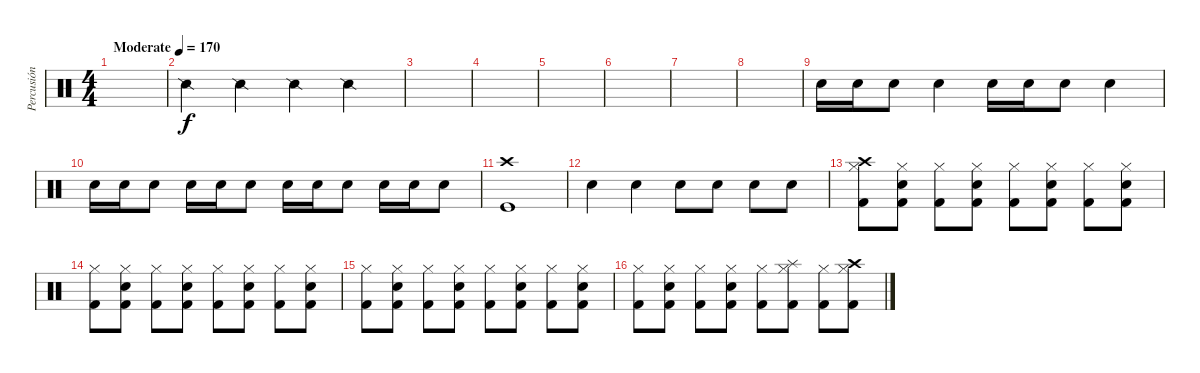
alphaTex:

\track ("Percusión" "Percusión") {instrument percussion}
\staff {score}
\articulation defaults
\ts (4 4)
\tempo (170 "Moderate")
\clef neutral
\ks c
|
"Snare (side stick) 2".4 "Snare (side stick) 2".4 "Snare (side stick) 2".4 "Snare (side stick) 2".4 |
|
|
|
|
|
|
"Snare (hit) 2".16 "Snare (hit) 2".16 "Snare (hit) 2".8 "Snare (hit) 2".4 "Snare (hit) 2".16 "Snare (hit) 2".16 "Snare (hit) 2".8 "Snare (hit) 2".4 |
"Snare (hit) 2".16 "Snare (hit) 2".16 "Snare (hit) 2".8 "Snare (hit) 2".16 "Snare (hit) 2".16 "Snare (hit) 2".8 "Snare (hit) 2".16 "Snare (hit) 2".16 "Snare (hit) 2".8 "Snare (hit) 2".16 "Snare (hit) 2".16 "Snare (hit) 2".8 |
("Crash high (hit)" "Kick (hit)").1 |
"Snare (hit) 2".4 "Snare (hit) 2".4 "Snare (hit) 2".8 "Snare (hit) 2".8 "Snare (hit) 2".8 "Snare (hit) 2".8 |
("Hi-Hat (closed)" "Crash high (hit)" "Kick (hit) 2").8 ("Hi-Hat (closed)" "Snare (hit) 2" "Kick (hit) 2").8 ("Hi-Hat (closed)" "Kick (hit) 2").8 ("Hi-Hat (closed)" "Snare (hit) 2" "Kick (hit) 2").8 ("Hi-Hat (closed)" "Kick (hit) 2").8 ("Hi-Hat (closed)" "Snare (hit) 2" "Kick (hit) 2").8 ("Hi-Hat (closed)" "Kick (hit) 2").8 ("Hi-Hat (closed)" "Snare (hit) 2" "Kick (hit) 2").8 |
("Hi-Hat (closed)" "Kick (hit) 2").8 ("Hi-Hat (closed)" "Snare (hit) 2" "Kick (hit) 2").8 ("Hi-Hat (closed)" "Kick (hit) 2").8 ("Hi-Hat (closed)" "Snare (hit) 2" "Kick (hit) 2").8 ("Hi-Hat (closed)" "Kick (hit) 2").8 ("Hi-Hat (closed)" "Snare (hit) 2" "Kick (hit) 2").8 ("Hi-Hat (closed)" "Kick (hit) 2").8 ("Hi-Hat (closed)" "Snare (hit) 2" "Kick (hit) 2").8 |
("Hi-Hat (closed)" "Kick (hit) 2").8 ("Hi-Hat (closed)" "Snare (hit) 2" "Kick (hit) 2").8 ("Hi-Hat (closed)" "Kick (hit) 2").8 ("Hi-Hat (closed)" "Snare (hit) 2" "Kick (hit) 2").8 ("Hi-Hat (closed)" "Kick (hit) 2").8 ("Hi-Hat (closed)" "Snare (hit) 2" "Kick (hit) 2").8 ("Hi-Hat (closed)" "Kick (hit) 2").8 ("Hi-Hat (closed)" "Snare (hit) 2" "Kick (hit) 2").8 |
("Hi-Hat (closed)" "Kick (hit) 2").8 ("Hi-Hat (closed)" "Snare (hit) 2" "Kick (hit) 2").8 ("Hi-Hat (closed)" "Kick (hit) 2").8 ("Hi-Hat (closed)" "Snare (hit) 2" "Kick (hit) 2").8 ("Hi-Hat (closed)" "Kick (hit) 2").8 ("Hi-Hat (closed)" "Splash (hit)" "Kick (hit) 2").8 ("Hi-Hat (closed)" "Kick (hit) 2").8 ("Hi-Hat (closed)" "Crash high (hit)" "Kick (hit) 2").8
